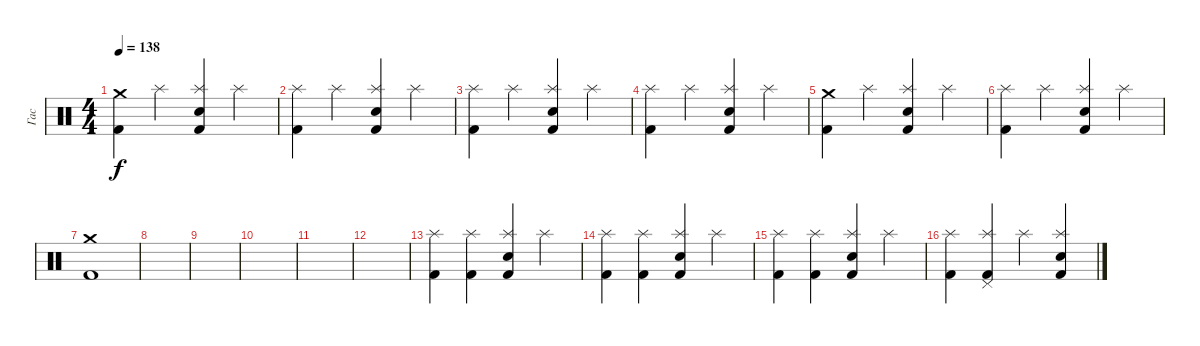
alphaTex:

\track ("Гас" "Гас") {instrument percussion}
\staff {score}
\articulation defaults
\ts (4 4)
\tempo 138
\clef neutral
\ks c
("Crash medium (hit)" "Kick (hit) 2").4{dy f} "Splash (hit)".4 ("Splash (hit)" "Electric Snare (hit)" "Kick (hit) 2").4 "Splash (hit)".4 |
("Splash (hit)" "Kick (hit) 2").4 "Splash (hit)".4 ("Splash (hit)" "Electric Snare (hit)" "Kick (hit) 2").4 "Splash (hit)".4 |
("Splash (hit)" "Kick (hit) 2").4 "Splash (hit)".4 ("Splash (hit)" "Electric Snare (hit)" "Kick (hit) 2").4 "Splash (hit)".4 |
("Splash (hit)" "Kick (hit) 2").4 "Splash (hit)".4 ("Splash (hit)" "Electric Snare (hit)" "Kick (hit) 2").4 "Splash (hit)".4 |
("Crash medium (hit)" "Kick (hit) 2").4 "Splash (hit)".4 ("Splash (hit)" "Electric Snare (hit)" "Kick (hit) 2").4 "Splash (hit)".4 |
("Splash (hit)" "Kick (hit) 2").4 "Splash (hit)".4 ("Splash (hit)" "Electric Snare (hit)" "Kick (hit) 2").4 "Splash (hit)".4 |
("Crash medium (hit)" "Kick (hit) 2").1 |
|
|
|
|
|
("Splash (hit)" "Kick (hit) 2").4 ("Splash (hit)" "Kick (hit) 2").4 ("Splash (hit)" "Electric Snare (hit)" "Kick (hit) 2").4 "Splash (hit)".4 |
("Splash (hit)" "Kick (hit) 2").4 ("Splash (hit)" "Kick (hit) 2").4 ("Splash (hit)" "Electric Snare (hit)" "Kick (hit) 2").4 "Splash (hit)".4 |
("Splash (hit)" "Kick (hit) 2").4 ("Splash (hit)" "Kick (hit) 2").4 ("Splash (hit)" "Electric Snare (hit)" "Kick (hit) 2").4 "Splash (hit)".4 |
("Splash (hit)" "Kick (hit) 2").4 ("Splash (hit)" "Pedal Hi-Hat (hit)" "Kick (hit) 2").4 "Splash (hit)".4 ("Splash (hit)" "Electric Snare (hit)" "Kick (hit) 2").4
